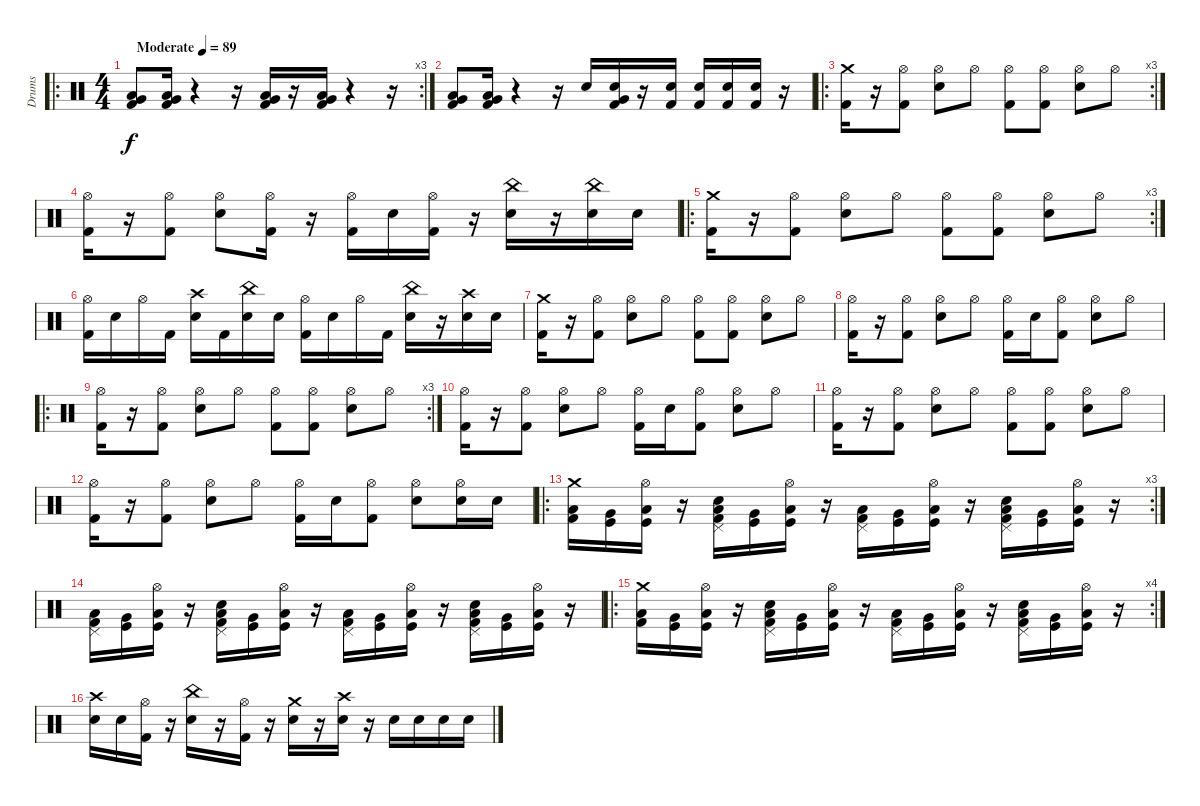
\track ("Drums" "Drums") {instrument percussion}
\staff {score}
\articulation defaults
\ro
\rc 3
\ts (4 4)
\tempo (89 "Moderate")
\clef neutral
\ks c
("Very Low Tom (hit)" "Low Tom (hit)" "Kick (hit) 2").8{dy f} ("Low Tom (hit)" "Very Low Tom (hit)" "Kick (hit) 2").16 r.4 r.16 ("Low Tom (hit)" "Very Low Tom (hit)" "Kick (hit) 2").16 r.16 ("Low Tom (hit)" "Very Low Tom (hit)" "Kick (hit) 2").16 r.4 r.16 |
("Very Low Tom (hit)" "Low Tom (hit)" "Kick (hit) 2").8 ("Low Tom (hit)" "Very Low Tom (hit)" "Kick (hit) 2").16 r.4 r.16 "Snare (hit) 2".16 ("Very Low Tom (hit)" "Kick (hit) 2" "Snare (hit) 2").16 r.16 ("Kick (hit) 2" "Snare (hit) 2").16 ("Kick (hit) 2" "Snare (hit) 2").16 ("Kick (hit) 2" "Snare (hit) 2").16 ("Kick (hit) 2" "Snare (hit) 2").16 r.16 |
\ro
\rc 3
("Kick (hit) 2" "Crash medium (hit)").16 r.16 ("Hi-Hat (open)" "Kick (hit) 2").8 ("Hi-Hat (open)" "Snare (hit) 2").8 "Hi-Hat (open)".8 ("Kick (hit) 2" "Hi-Hat (open)").8 ("Kick (hit) 2" "Hi-Hat (open)").8 ("Snare (hit) 2" "Hi-Hat (open)").8 "Hi-Hat (open)".8 |
("Kick (hit) 2" "Hi-Hat (open)").16 r.16 ("Kick (hit) 2" "Hi-Hat (open)").8 ("Electric Snare (hit)" "Hi-Hat (open)").8 ("Kick (hit) 2" "Hi-Hat (open)").16 r.16 ("Hi-Hat (open)" "Kick (hit) 2").16 "Snare (hit) 2".16 ("Hi-Hat (open)" "Kick (hit) 2").16 r.16 ("China (hit)" "Snare (hit) 2").16 r.16 ("China (hit)" "Snare (hit) 2").16 "Snare (hit) 2".16 |
\ro
\rc 3
("Kick (hit) 2" "Crash medium (hit)").16 r.16 ("Hi-Hat (open)" "Kick (hit) 2").8 ("Hi-Hat (open)" "Snare (hit) 2").8 "Hi-Hat (open)".8 ("Kick (hit) 2" "Hi-Hat (open)").8 ("Kick (hit) 2" "Hi-Hat (open)").8 ("Snare (hit) 2" "Hi-Hat (open)").8 "Hi-Hat (open)".8 |
("Kick (hit) 2" "Hi-Hat (open)").16 "Snare (hit) 2".16 "Hi-Hat (open)".16 "Kick (hit) 2".16 ("Crash high (hit)" "Snare (hit) 2").16 "Kick (hit) 2".16 ("Snare (hit) 2" "China (hit)").16 "Snare (hit) 2".16 ("Kick (hit) 2" "Hi-Hat (open)").16 "Snare (hit) 2".16 "Hi-Hat (open)".16 "Kick (hit) 2".16 ("Snare (hit) 2" "China (hit)").16 r.16 ("Crash high (hit)" "Snare (hit) 2").16 "Snare (hit) 2".16 |
("Kick (hit) 2" "Crash medium (hit)").16 r.16 ("Kick (hit) 2" "Hi-Hat (open)").8 ("Hi-Hat (open)" "Snare (hit) 2").8 "Hi-Hat (open)".8 ("Hi-Hat (open)" "Kick (hit) 2").8 ("Kick (hit) 2" "Hi-Hat (open)").8 ("Hi-Hat (open)" "Snare (hit) 2").8 "Hi-Hat (open)".8 |
("Kick (hit) 2" "Hi-Hat (open)").16 r.16 ("Kick (hit) 2" "Hi-Hat (open)").8 ("Snare (hit) 2" "Hi-Hat (open)").8 "Hi-Hat (open)".8 ("Kick (hit) 2" "Hi-Hat (open)").16 "Snare (hit) 2".16 ("Kick (hit) 2" "Hi-Hat (open)").8 ("Snare (hit) 2" "Hi-Hat (open)").8 "Hi-Hat (open)".8 |
\ro
\rc 3
("Kick (hit) 2" "Hi-Hat (open)").16 r.16 ("Kick (hit) 2" "Hi-Hat (open)").8 ("Snare (hit) 2" "Hi-Hat (open)").8 "Hi-Hat (open)".8 ("Kick (hit) 2" "Hi-Hat (open)").8 ("Kick (hit) 2" "Hi-Hat (open)").8 ("Snare (hit) 2" "Hi-Hat (open)").8 "Hi-Hat (open)".8 |
("Kick (hit) 2" "Hi-Hat (open)").16 r.16 ("Kick (hit) 2" "Hi-Hat (open)").8 ("Snare (hit) 2" "Hi-Hat (open)").8 "Hi-Hat (open)".8 ("Kick (hit) 2" "Hi-Hat (open)").16 "Snare (hit) 2".16 ("Kick (hit) 2" "Hi-Hat (open)").8 ("Snare (hit) 2" "Hi-Hat (open)").8 "Hi-Hat (open)".8 |
("Kick (hit) 2" "Hi-Hat (open)").16 r.16 ("Kick (hit) 2" "Hi-Hat (open)").8 ("Snare (hit) 2" "Hi-Hat (open)").8 "Hi-Hat (open)".8 ("Kick (hit) 2" "Hi-Hat (open)").8 ("Kick (hit) 2" "Hi-Hat (open)").8 ("Snare (hit) 2" "Hi-Hat (open)").8 "Hi-Hat (open)".8 |
("Kick (hit) 2" "Hi-Hat (open)").16 r.16 ("Kick (hit) 2" "Hi-Hat (open)").8 ("Snare (hit) 2" "Hi-Hat (open)").8 "Hi-Hat (open)".8 ("Kick (hit) 2" "Hi-Hat (open)").16 "Snare (hit) 2".16 ("Kick (hit) 2" "Hi-Hat (open)").8 ("Snare (hit) 2" "Hi-Hat (open)").8 ("Snare (hit) 2" "Hi-Hat (open)").16 "Snare (hit) 2".16 |
\ro
\rc 3
("Kick (hit) 2" "Crash medium (hit)" "Low Tom (hit)").16 ("Very Low Tom (hit)" "Kick (hit)").16 ("Hi-Hat (open)" "Low Floor Tom (hit)" "Kick (hit)").16 r.16 ("Kick (hit) 2" "Pedal Hi-Hat (hit)" "Snare (hit) 2" "Low Tom (hit)").16 ("Kick (hit)" "Very Low Tom (hit)").16 ("Hi-Hat (open)" "Kick (hit)" "Low Floor Tom (hit)").16 r.16 ("Pedal Hi-Hat (hit)" "Kick (hit) 2" "Low Tom (hit)").16 ("Kick (hit)" "Very Low Tom (hit)").16 ("Hi-Hat (open)" "Kick (hit)" "Low Floor Tom (hit)").16 r.16 ("Kick (hit) 2" "Pedal Hi-Hat (hit)" "Snare (hit) 2" "Low Tom (hit)").16 ("Kick (hit)" "Very Low Tom (hit)").16 ("Hi-Hat (open)" "Kick (hit)" "Low Floor Tom (hit)").16 r.16 |
("Kick (hit) 2" "Pedal Hi-Hat (hit)" "Low Tom (hit)").16 ("Kick (hit)" "Very Low Tom (hit)").16 ("Hi-Hat (open)" "Kick (hit)" "Low Floor Tom (hit)").16 r.16 ("Kick (hit) 2" "Pedal Hi-Hat (hit)" "Snare (hit) 2" "Low Tom (hit)").16 ("Kick (hit)" "Very Low Tom (hit)").16 ("Hi-Hat (open)" "Kick (hit)" "Low Floor Tom (hit)").16 r.16 ("Pedal Hi-Hat (hit)" "Kick (hit) 2" "Low Tom (hit)").16 ("Kick (hit)" "Very Low Tom (hit)").16 ("Hi-Hat (open)" "Kick (hit)" "Low Floor Tom (hit)").16 r.16 ("Kick (hit) 2" "Pedal Hi-Hat (hit)" "Snare (hit) 2" "Low Tom (hit)").16 ("Kick (hit)" "Very Low Tom (hit)").16 ("Hi-Hat (open)" "Kick (hit)" "Low Floor Tom (hit)").16 r.16 |
\ro
\rc 4
("Kick (hit) 2" "Crash medium (hit)" "Low Tom (hit)").16 ("Kick (hit)" "Very Low Tom (hit)").16 ("Hi-Hat (open)" "Kick (hit)" "Low Floor Tom (hit)").16 r.16 ("Kick (hit) 2" "Pedal Hi-Hat (hit)" "Snare (hit) 2" "Low Tom (hit)").16 ("Kick (hit)" "Very Low Tom (hit)").16 ("Hi-Hat (open)" "Kick (hit)" "Low Floor Tom (hit)").16 r.16 ("Pedal Hi-Hat (hit)" "Kick (hit) 2" "Low Tom (hit)").16 ("Kick (hit)" "Very Low Tom (hit)").16 ("Hi-Hat (open)" "Kick (hit)" "Low Floor Tom (hit)").16 r.16 ("Kick (hit) 2" "Pedal Hi-Hat (hit)" "Snare (hit) 2" "Low Tom (hit)").16 ("Kick (hit)" "Very Low Tom (hit)").16 ("Hi-Hat (open)" "Kick (hit)" "Low Floor Tom (hit)").16 r.16 |
("Snare (hit) 2" "Crash high (hit)").16 "Snare (hit) 2".16 ("Hi-Hat (open)" "Kick (hit) 2").16 r.16 ("China (hit)" "Snare (hit) 2").16 r.16 ("Hi-Hat (open)" "Kick (hit) 2").16 r.16 ("Crash medium (hit)" "Snare (hit) 2").16 r.16 ("Crash high (hit)" "Snare (hit) 2").16 r.16 "Snare (hit) 2".16 "Snare (hit) 2".16 "Snare (hit) 2".16 "Snare (hit) 2".16
